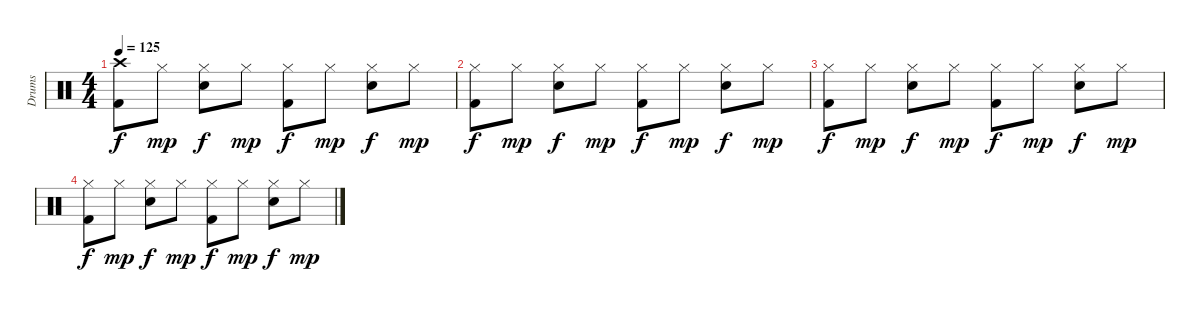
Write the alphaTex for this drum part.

\track ("Drums" "Drums") {instrument percussion}
\staff {score}
\articulation defaults
\ts (4 4)
\tempo 125
\clef neutral
\ks c
("Crash high (hit)" "Kick (hit) 2").8{dy f} "Hi-Hat (closed)".8{dy mp} ("Hi-Hat (closed)" "Snare (hit) 2").8{dy f} "Hi-Hat (closed)".8{dy mp} ("Hi-Hat (closed)" "Kick (hit) 2").8{dy f} "Hi-Hat (closed)".8{dy mp} ("Hi-Hat (closed)" "Snare (hit) 2").8{dy f} "Hi-Hat (closed)".8{dy mp} |
("Hi-Hat (closed)" "Kick (hit) 2").8{dy f} "Hi-Hat (closed)".8{dy mp} ("Hi-Hat (closed)" "Snare (hit) 2").8{dy f} "Hi-Hat (closed)".8{dy mp} ("Hi-Hat (closed)" "Kick (hit) 2").8{dy f} "Hi-Hat (closed)".8{dy mp} ("Hi-Hat (closed)" "Snare (hit) 2").8{dy f} "Hi-Hat (closed)".8{dy mp} |
("Hi-Hat (closed)" "Kick (hit) 2").8{dy f} "Hi-Hat (closed)".8{dy mp} ("Hi-Hat (closed)" "Snare (hit) 2").8{dy f} "Hi-Hat (closed)".8{dy mp} ("Hi-Hat (closed)" "Kick (hit) 2").8{dy f} "Hi-Hat (closed)".8{dy mp} ("Hi-Hat (closed)" "Snare (hit) 2").8{dy f} "Hi-Hat (closed)".8{dy mp} |
("Hi-Hat (closed)" "Kick (hit) 2").8{dy f} "Hi-Hat (closed)".8{dy mp} ("Hi-Hat (closed)" "Snare (hit) 2").8{dy f} "Hi-Hat (closed)".8{dy mp} ("Hi-Hat (closed)" "Kick (hit) 2").8{dy f} "Hi-Hat (closed)".8{dy mp} ("Hi-Hat (closed)" "Snare (hit) 2").8{dy f} "Hi-Hat (closed)".8{dy mp}
